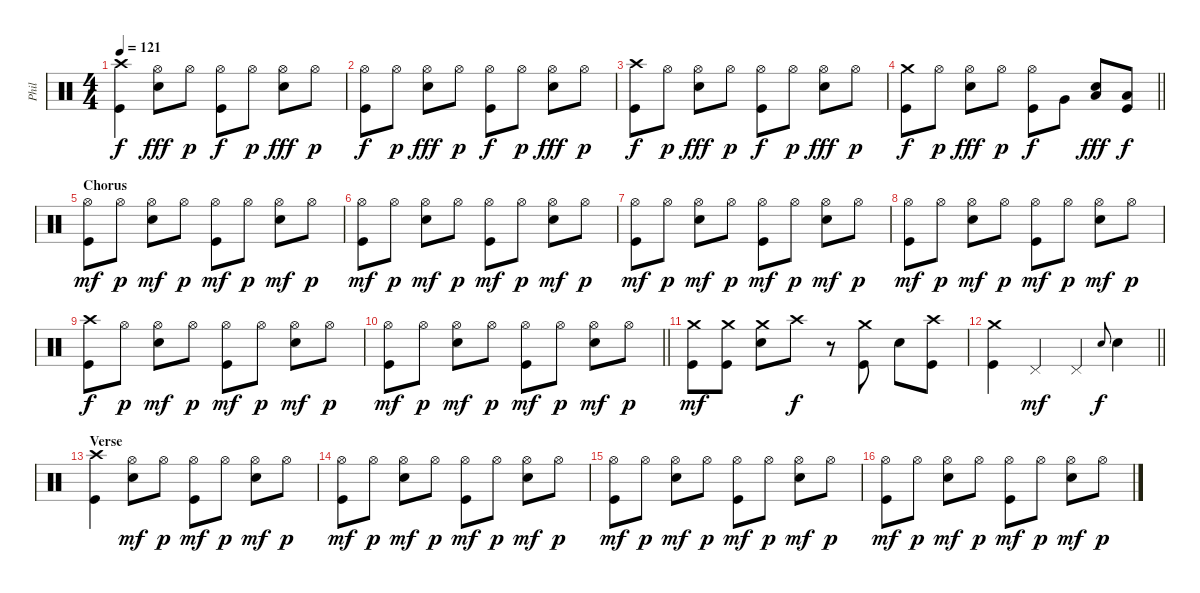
\track ("Phil" "Phil") {instrument percussion}
\staff {score}
\articulation defaults
\ts (4 4)
\tempo 121
\clef neutral
\ks c
("Crash high (hit)" "Kick (hit)").4{dy f} ("Hi-Hat (open)" "Snare (hit) 2").8{dy fff} "Hi-Hat (open)".8{dy p} ("Hi-Hat (open)" "Kick (hit)").8{dy f} "Hi-Hat (open)".8{dy p} ("Hi-Hat (open)" "Snare (hit) 2").8{dy fff} "Hi-Hat (open)".8{dy p} |
("Hi-Hat (open)" "Kick (hit)").8{dy f} "Hi-Hat (open)".8{dy p} ("Hi-Hat (open)" "Snare (hit) 2").8{dy fff} "Hi-Hat (open)".8{dy p} ("Hi-Hat (open)" "Kick (hit)").8{dy f} "Hi-Hat (open)".8{dy p} ("Hi-Hat (open)" "Snare (hit) 2").8{dy fff} "Hi-Hat (open)".8{dy p} |
("Crash high (hit)" "Kick (hit)").8{dy f} "Hi-Hat (open)".8{dy p} ("Hi-Hat (open)" "Snare (hit) 2").8{dy fff} "Hi-Hat (open)".8{dy p} ("Hi-Hat (open)" "Kick (hit)").8{dy f} "Hi-Hat (open)".8{dy p} ("Hi-Hat (open)" "Snare (hit) 2").8{dy fff} "Hi-Hat (open)".8{dy p} |
\barLineRight lightlight
("Crash medium (hit)" "Kick (hit)").8{dy f} "Hi-Hat (open)".8{dy p} ("Hi-Hat (open)" "Snare (hit) 2").8{dy fff} "Hi-Hat (open)".8{dy p} ("Hi-Hat (open)" "Kick (hit)").8{dy f} "Very Low Tom (hit)".8 ("Low Tom (hit)" "Snare (hit) 2").8{dy fff} ("Low Floor Tom (hit)" "Kick (hit)").8{dy f} |
\section ("" "Chorus")
("Hi-Hat (open)" "Kick (hit)").8{dy mf} "Hi-Hat (open)".8{dy p} ("Hi-Hat (open)" "Snare (hit) 2").8{dy mf} "Hi-Hat (open)".8{dy p} ("Hi-Hat (open)" "Kick (hit)").8{dy mf} "Hi-Hat (open)".8{dy p} ("Hi-Hat (open)" "Snare (hit) 2").8{dy mf} "Hi-Hat (open)".8{dy p} |
("Hi-Hat (open)" "Kick (hit)").8{dy mf} "Hi-Hat (open)".8{dy p} ("Hi-Hat (open)" "Snare (hit) 2").8{dy mf} "Hi-Hat (open)".8{dy p} ("Hi-Hat (open)" "Kick (hit)").8{dy mf} "Hi-Hat (open)".8{dy p} ("Hi-Hat (open)" "Snare (hit) 2").8{dy mf} "Hi-Hat (open)".8{dy p} |
("Hi-Hat (open)" "Kick (hit)").8{dy mf} "Hi-Hat (open)".8{dy p} ("Hi-Hat (open)" "Snare (hit) 2").8{dy mf} "Hi-Hat (open)".8{dy p} ("Hi-Hat (open)" "Kick (hit)").8{dy mf} "Hi-Hat (open)".8{dy p} ("Hi-Hat (open)" "Snare (hit) 2").8{dy mf} "Hi-Hat (open)".8{dy p} |
("Hi-Hat (open)" "Kick (hit)").8{dy mf} "Hi-Hat (open)".8{dy p} ("Hi-Hat (open)" "Snare (hit) 2").8{dy mf} "Hi-Hat (open)".8{dy p} ("Hi-Hat (open)" "Kick (hit)").8{dy mf} "Hi-Hat (open)".8{dy p} ("Hi-Hat (open)" "Snare (hit) 2").8{dy mf} "Hi-Hat (open)".8{dy p} |
("Crash high (hit)" "Kick (hit)").8{dy f} "Hi-Hat (open)".8{dy p} ("Hi-Hat (open)" "Snare (hit) 2").8{dy mf} "Hi-Hat (open)".8{dy p} ("Hi-Hat (open)" "Kick (hit)").8{dy mf} "Hi-Hat (open)".8{dy p} ("Hi-Hat (open)" "Snare (hit) 2").8{dy mf} "Hi-Hat (open)".8{dy p} |
\barLineRight lightlight
("Hi-Hat (open)" "Kick (hit)").8{dy mf} "Hi-Hat (open)".8{dy p} ("Hi-Hat (open)" "Snare (hit) 2").8{dy mf} "Hi-Hat (open)".8{dy p} ("Hi-Hat (open)" "Kick (hit)").8{dy mf} "Hi-Hat (open)".8{dy p} ("Hi-Hat (open)" "Snare (hit) 2").8{dy mf} "Hi-Hat (open)".8{dy p} |
("Crash medium (hit)" "Kick (hit)").8{dy mf} ("Crash medium (hit)" "Kick (hit)").8 ("Crash medium (hit)" "Snare (hit) 2").8 "Crash high (hit)".8{dy f} r.8 ("Crash medium (hit)" "Kick (hit)").8 "Snare (hit) 2".8 ("Crash high (hit)" "Kick (hit)").8 |
\barLineRight lightlight
("Crash medium (hit)" "Kick (hit)").4 "Pedal Hi-Hat (hit)".4{dy mf} "Pedal Hi-Hat (hit)".4 "Snare (hit) 2".8{gr onbeat dy f} "Snare (hit) 2".4 |
\section ("" "Verse")
("Crash high (hit)" "Kick (hit)").4 ("Hi-Hat (open)" "Snare (hit) 2").8{dy mf} "Hi-Hat (open)".8{dy p} ("Hi-Hat (open)" "Kick (hit)").8{dy mf} "Hi-Hat (open)".8{dy p} ("Hi-Hat (open)" "Snare (hit) 2").8{dy mf} "Hi-Hat (open)".8{dy p} |
("Hi-Hat (open)" "Kick (hit)").8{dy mf} "Hi-Hat (open)".8{dy p} ("Hi-Hat (open)" "Snare (hit) 2").8{dy mf} "Hi-Hat (open)".8{dy p} ("Hi-Hat (open)" "Kick (hit)").8{dy mf} "Hi-Hat (open)".8{dy p} ("Hi-Hat (open)" "Snare (hit) 2").8{dy mf} "Hi-Hat (open)".8{dy p} |
("Hi-Hat (open)" "Kick (hit)").8{dy mf} "Hi-Hat (open)".8{dy p} ("Hi-Hat (open)" "Snare (hit) 2").8{dy mf} "Hi-Hat (open)".8{dy p} ("Hi-Hat (open)" "Kick (hit)").8{dy mf} "Hi-Hat (open)".8{dy p} ("Hi-Hat (open)" "Snare (hit) 2").8{dy mf} "Hi-Hat (open)".8{dy p} |
("Hi-Hat (open)" "Kick (hit)").8{dy mf} "Hi-Hat (open)".8{dy p} ("Hi-Hat (open)" "Snare (hit) 2").8{dy mf} "Hi-Hat (open)".8{dy p} ("Hi-Hat (open)" "Kick (hit)").8{dy mf} "Hi-Hat (open)".8{dy p} ("Hi-Hat (open)" "Snare (hit) 2").8{dy mf} "Hi-Hat (open)".8{dy p}
